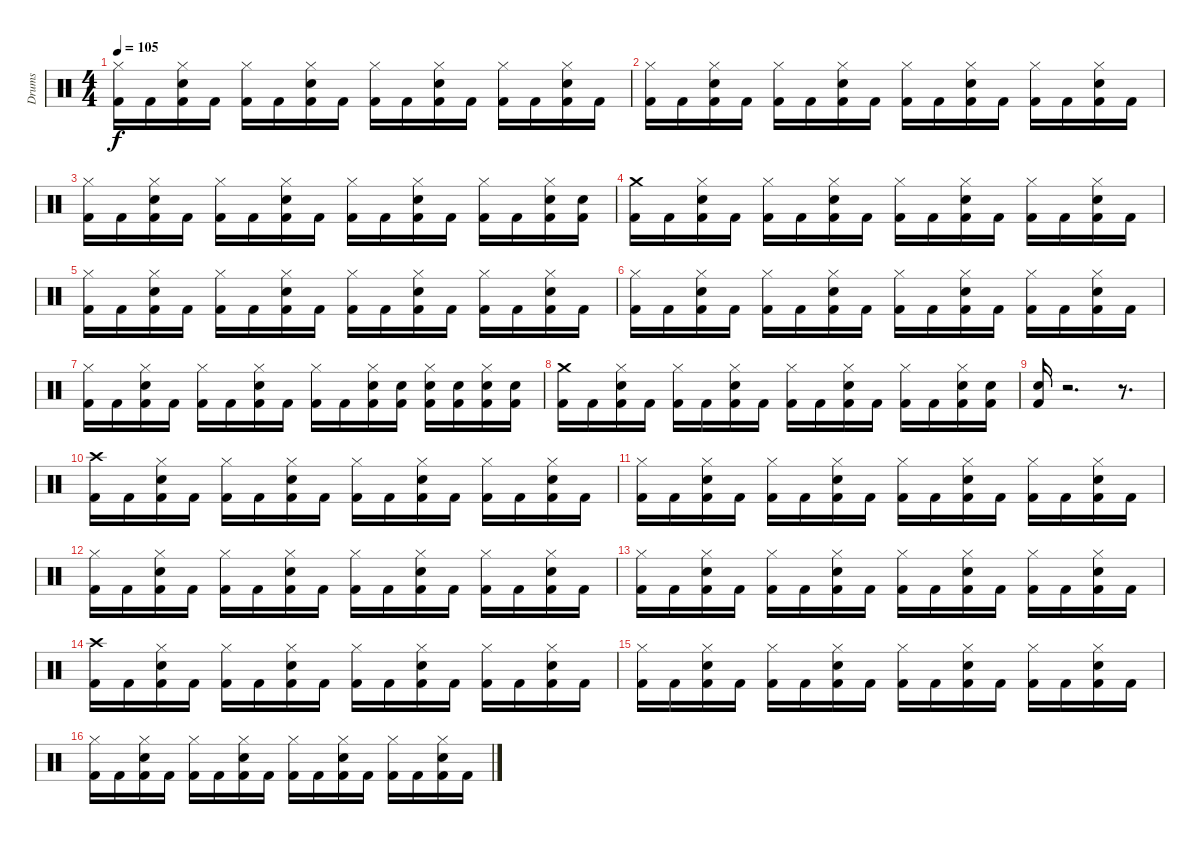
\track ("Drums" "Drums") {instrument percussion}
\staff {score}
\articulation defaults
\ts (4 4)
\tempo 105
\clef neutral
\ks c
("Hi-Hat (closed)" "Kick (hit) 2").16{dy f} "Kick (hit) 2".16 ("Hi-Hat (closed)" "Electric Snare (hit)" "Kick (hit) 2").16 "Kick (hit) 2".16 ("Hi-Hat (closed)" "Kick (hit) 2").16 "Kick (hit) 2".16 ("Hi-Hat (closed)" "Electric Snare (hit)" "Kick (hit) 2").16 "Kick (hit) 2".16 ("Hi-Hat (closed)" "Kick (hit) 2").16 "Kick (hit) 2".16 ("Hi-Hat (closed)" "Electric Snare (hit)" "Kick (hit) 2").16 "Kick (hit) 2".16 ("Hi-Hat (closed)" "Kick (hit) 2").16 "Kick (hit) 2".16 ("Hi-Hat (closed)" "Electric Snare (hit)" "Kick (hit) 2").16 "Kick (hit) 2".16 |
("Hi-Hat (closed)" "Kick (hit) 2").16 "Kick (hit) 2".16 ("Hi-Hat (closed)" "Electric Snare (hit)" "Kick (hit) 2").16 "Kick (hit) 2".16 ("Hi-Hat (closed)" "Kick (hit) 2").16 "Kick (hit) 2".16 ("Hi-Hat (closed)" "Electric Snare (hit)" "Kick (hit) 2").16 "Kick (hit) 2".16 ("Hi-Hat (closed)" "Kick (hit) 2").16 "Kick (hit) 2".16 ("Hi-Hat (closed)" "Electric Snare (hit)" "Kick (hit) 2").16 "Kick (hit) 2".16 ("Hi-Hat (closed)" "Kick (hit) 2").16 "Kick (hit) 2".16 ("Hi-Hat (closed)" "Electric Snare (hit)" "Kick (hit) 2").16 "Kick (hit) 2".16 |
("Hi-Hat (closed)" "Kick (hit) 2").16 "Kick (hit) 2".16 ("Hi-Hat (closed)" "Electric Snare (hit)" "Kick (hit) 2").16 "Kick (hit) 2".16 ("Hi-Hat (closed)" "Kick (hit) 2").16 "Kick (hit) 2".16 ("Hi-Hat (closed)" "Electric Snare (hit)" "Kick (hit) 2").16 "Kick (hit) 2".16 ("Hi-Hat (closed)" "Kick (hit) 2").16 "Kick (hit) 2".16 ("Hi-Hat (closed)" "Electric Snare (hit)" "Kick (hit) 2").16 "Kick (hit) 2".16 ("Hi-Hat (closed)" "Kick (hit) 2").16 "Kick (hit) 2".16 ("Hi-Hat (closed)" "Electric Snare (hit)" "Kick (hit) 2").16 ("Electric Snare (hit)" "Kick (hit) 2").16 |
("Crash medium (hit)" "Kick (hit) 2").16 "Kick (hit) 2".16 ("Hi-Hat (closed)" "Electric Snare (hit)" "Kick (hit) 2").16 "Kick (hit) 2".16 ("Hi-Hat (closed)" "Kick (hit) 2").16 "Kick (hit) 2".16 ("Hi-Hat (closed)" "Electric Snare (hit)" "Kick (hit) 2").16 "Kick (hit) 2".16 ("Hi-Hat (closed)" "Kick (hit) 2").16 "Kick (hit) 2".16 ("Hi-Hat (closed)" "Electric Snare (hit)" "Kick (hit) 2").16 "Kick (hit) 2".16 ("Hi-Hat (closed)" "Kick (hit) 2").16 "Kick (hit) 2".16 ("Hi-Hat (closed)" "Electric Snare (hit)" "Kick (hit) 2").16 "Kick (hit) 2".16 |
("Hi-Hat (closed)" "Kick (hit) 2").16 "Kick (hit) 2".16 ("Hi-Hat (closed)" "Electric Snare (hit)" "Kick (hit) 2").16 "Kick (hit) 2".16 ("Hi-Hat (closed)" "Kick (hit) 2").16 "Kick (hit) 2".16 ("Hi-Hat (closed)" "Electric Snare (hit)" "Kick (hit) 2").16 "Kick (hit) 2".16 ("Hi-Hat (closed)" "Kick (hit) 2").16 "Kick (hit) 2".16 ("Hi-Hat (closed)" "Electric Snare (hit)" "Kick (hit) 2").16 "Kick (hit) 2".16 ("Hi-Hat (closed)" "Kick (hit) 2").16 "Kick (hit) 2".16 ("Hi-Hat (closed)" "Electric Snare (hit)" "Kick (hit) 2").16 "Kick (hit) 2".16 |
("Hi-Hat (closed)" "Kick (hit) 2").16 "Kick (hit) 2".16 ("Hi-Hat (closed)" "Electric Snare (hit)" "Kick (hit) 2").16 "Kick (hit) 2".16 ("Hi-Hat (closed)" "Kick (hit) 2").16 "Kick (hit) 2".16 ("Hi-Hat (closed)" "Electric Snare (hit)" "Kick (hit) 2").16 "Kick (hit) 2".16 ("Hi-Hat (closed)" "Kick (hit) 2").16 "Kick (hit) 2".16 ("Hi-Hat (closed)" "Electric Snare (hit)" "Kick (hit) 2").16 "Kick (hit) 2".16 ("Hi-Hat (closed)" "Kick (hit) 2").16 "Kick (hit) 2".16 ("Hi-Hat (closed)" "Electric Snare (hit)" "Kick (hit) 2").16 "Kick (hit) 2".16 |
("Hi-Hat (closed)" "Kick (hit) 2").16 "Kick (hit) 2".16 ("Hi-Hat (closed)" "Electric Snare (hit)" "Kick (hit) 2").16 "Kick (hit) 2".16 ("Hi-Hat (closed)" "Kick (hit) 2").16 "Kick (hit) 2".16 ("Hi-Hat (closed)" "Electric Snare (hit)" "Kick (hit) 2").16 "Kick (hit) 2".16 ("Hi-Hat (closed)" "Kick (hit) 2").16 "Kick (hit) 2".16 ("Hi-Hat (closed)" "Electric Snare (hit)" "Kick (hit) 2").16 ("Electric Snare (hit)" "Kick (hit) 2").16 ("Hi-Hat (closed)" "Electric Snare (hit)" "Kick (hit) 2").16 ("Electric Snare (hit)" "Kick (hit) 2").16 ("Hi-Hat (closed)" "Electric Snare (hit)" "Kick (hit) 2").16 ("Electric Snare (hit)" "Kick (hit) 2").16 |
("Crash medium (hit)" "Kick (hit) 2").16 "Kick (hit) 2".16 ("Hi-Hat (closed)" "Electric Snare (hit)" "Kick (hit) 2").16 "Kick (hit) 2".16 ("Hi-Hat (closed)" "Kick (hit) 2").16 "Kick (hit) 2".16 ("Hi-Hat (closed)" "Electric Snare (hit)" "Kick (hit) 2").16 "Kick (hit) 2".16 ("Hi-Hat (closed)" "Kick (hit) 2").16 "Kick (hit) 2".16 ("Hi-Hat (closed)" "Electric Snare (hit)" "Kick (hit) 2").16 "Kick (hit) 2".16 ("Hi-Hat (closed)" "Kick (hit) 2").16 "Kick (hit) 2".16 ("Hi-Hat (closed)" "Electric Snare (hit)" "Kick (hit) 2").16 ("Electric Snare (hit)" "Kick (hit) 2").16 |
("Electric Snare (hit)" "Kick (hit) 2").16 r.2{d} r.8{d} |
("Crash high (hit)" "Kick (hit) 2").16 "Kick (hit) 2".16 ("Hi-Hat (closed)" "Electric Snare (hit)" "Kick (hit) 2").16 "Kick (hit) 2".16 ("Hi-Hat (closed)" "Kick (hit) 2").16 "Kick (hit) 2".16 ("Hi-Hat (closed)" "Electric Snare (hit)" "Kick (hit) 2").16 "Kick (hit) 2".16 ("Hi-Hat (closed)" "Kick (hit) 2").16 "Kick (hit) 2".16 ("Hi-Hat (closed)" "Electric Snare (hit)" "Kick (hit) 2").16 "Kick (hit) 2".16 ("Hi-Hat (closed)" "Kick (hit) 2").16 "Kick (hit) 2".16 ("Hi-Hat (closed)" "Electric Snare (hit)" "Kick (hit) 2").16 "Kick (hit) 2".16 |
("Hi-Hat (closed)" "Kick (hit) 2").16 "Kick (hit) 2".16 ("Hi-Hat (closed)" "Electric Snare (hit)" "Kick (hit) 2").16 "Kick (hit) 2".16 ("Hi-Hat (closed)" "Kick (hit) 2").16 "Kick (hit) 2".16 ("Hi-Hat (closed)" "Electric Snare (hit)" "Kick (hit) 2").16 "Kick (hit) 2".16 ("Hi-Hat (closed)" "Kick (hit) 2").16 "Kick (hit) 2".16 ("Hi-Hat (closed)" "Electric Snare (hit)" "Kick (hit) 2").16 "Kick (hit) 2".16 ("Hi-Hat (closed)" "Kick (hit) 2").16 "Kick (hit) 2".16 ("Hi-Hat (closed)" "Electric Snare (hit)" "Kick (hit) 2").16 "Kick (hit) 2".16 |
("Hi-Hat (closed)" "Kick (hit) 2").16 "Kick (hit) 2".16 ("Hi-Hat (closed)" "Electric Snare (hit)" "Kick (hit) 2").16 "Kick (hit) 2".16 ("Hi-Hat (closed)" "Kick (hit) 2").16 "Kick (hit) 2".16 ("Hi-Hat (closed)" "Electric Snare (hit)" "Kick (hit) 2").16 "Kick (hit) 2".16 ("Hi-Hat (closed)" "Kick (hit) 2").16 "Kick (hit) 2".16 ("Hi-Hat (closed)" "Electric Snare (hit)" "Kick (hit) 2").16 "Kick (hit) 2".16 ("Hi-Hat (closed)" "Kick (hit) 2").16 "Kick (hit) 2".16 ("Hi-Hat (closed)" "Electric Snare (hit)" "Kick (hit) 2").16 "Kick (hit) 2".16 |
("Hi-Hat (closed)" "Kick (hit) 2").16 "Kick (hit) 2".16 ("Hi-Hat (closed)" "Electric Snare (hit)" "Kick (hit) 2").16 "Kick (hit) 2".16 ("Hi-Hat (closed)" "Kick (hit) 2").16 "Kick (hit) 2".16 ("Hi-Hat (closed)" "Electric Snare (hit)" "Kick (hit) 2").16 "Kick (hit) 2".16 ("Hi-Hat (closed)" "Kick (hit) 2").16 "Kick (hit) 2".16 ("Hi-Hat (closed)" "Electric Snare (hit)" "Kick (hit) 2").16 "Kick (hit) 2".16 ("Hi-Hat (closed)" "Kick (hit) 2").16 "Kick (hit) 2".16 ("Hi-Hat (closed)" "Electric Snare (hit)" "Kick (hit) 2").16 "Kick (hit) 2".16 |
("Crash high (hit)" "Kick (hit) 2").16 "Kick (hit) 2".16 ("Hi-Hat (closed)" "Electric Snare (hit)" "Kick (hit) 2").16 "Kick (hit) 2".16 ("Hi-Hat (closed)" "Kick (hit) 2").16 "Kick (hit) 2".16 ("Hi-Hat (closed)" "Electric Snare (hit)" "Kick (hit) 2").16 "Kick (hit) 2".16 ("Hi-Hat (closed)" "Kick (hit) 2").16 "Kick (hit) 2".16 ("Hi-Hat (closed)" "Electric Snare (hit)" "Kick (hit) 2").16 "Kick (hit) 2".16 ("Hi-Hat (closed)" "Kick (hit) 2").16 "Kick (hit) 2".16 ("Hi-Hat (closed)" "Electric Snare (hit)" "Kick (hit) 2").16 "Kick (hit) 2".16 |
("Hi-Hat (closed)" "Kick (hit) 2").16 "Kick (hit) 2".16 ("Hi-Hat (closed)" "Electric Snare (hit)" "Kick (hit) 2").16 "Kick (hit) 2".16 ("Hi-Hat (closed)" "Kick (hit) 2").16 "Kick (hit) 2".16 ("Hi-Hat (closed)" "Electric Snare (hit)" "Kick (hit) 2").16 "Kick (hit) 2".16 ("Hi-Hat (closed)" "Kick (hit) 2").16 "Kick (hit) 2".16 ("Hi-Hat (closed)" "Electric Snare (hit)" "Kick (hit) 2").16 "Kick (hit) 2".16 ("Hi-Hat (closed)" "Kick (hit) 2").16 "Kick (hit) 2".16 ("Hi-Hat (closed)" "Electric Snare (hit)" "Kick (hit) 2").16 "Kick (hit) 2".16 |
("Hi-Hat (closed)" "Kick (hit) 2").16 "Kick (hit) 2".16 ("Hi-Hat (closed)" "Electric Snare (hit)" "Kick (hit) 2").16 "Kick (hit) 2".16 ("Hi-Hat (closed)" "Kick (hit) 2").16 "Kick (hit) 2".16 ("Hi-Hat (closed)" "Electric Snare (hit)" "Kick (hit) 2").16 "Kick (hit) 2".16 ("Hi-Hat (closed)" "Kick (hit) 2").16 "Kick (hit) 2".16 ("Hi-Hat (closed)" "Electric Snare (hit)" "Kick (hit) 2").16 "Kick (hit) 2".16 ("Hi-Hat (closed)" "Kick (hit) 2").16 "Kick (hit) 2".16 ("Hi-Hat (closed)" "Electric Snare (hit)" "Kick (hit) 2").16 "Kick (hit) 2".16
